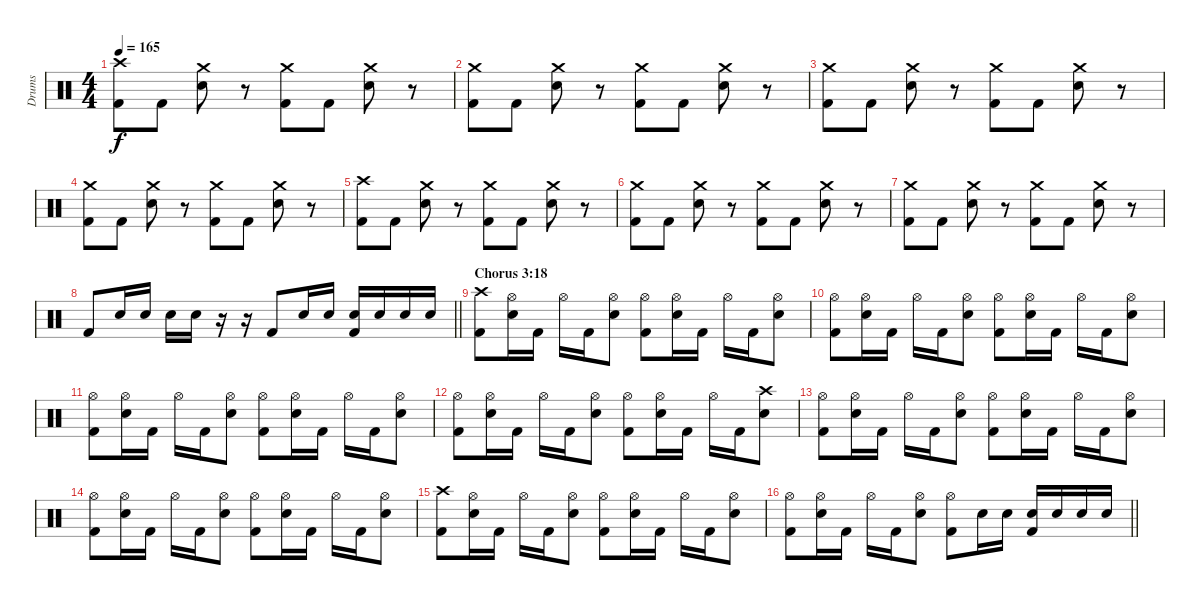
\track ("Drums" "Drums") {instrument percussion}
\staff {score}
\articulation defaults
\ts (4 4)
\tempo 165
\clef neutral
\ks c
("Crash high (hit)" "Kick (hit) 2").8{dy f} "Kick (hit) 2".8 ("Crash medium (hit)" "Electric Snare (hit)").8 r.8 ("Crash medium (hit)" "Kick (hit) 2").8 "Kick (hit) 2".8 ("Crash medium (hit)" "Electric Snare (hit)").8 r.8 |
("Crash medium (hit)" "Kick (hit) 2").8 "Kick (hit) 2".8 ("Crash medium (hit)" "Electric Snare (hit)").8 r.8 ("Crash medium (hit)" "Kick (hit) 2").8 "Kick (hit) 2".8 ("Crash medium (hit)" "Electric Snare (hit)").8 r.8 |
("Crash medium (hit)" "Kick (hit) 2").8 "Kick (hit) 2".8 ("Crash medium (hit)" "Electric Snare (hit)").8 r.8 ("Crash medium (hit)" "Kick (hit) 2").8 "Kick (hit) 2".8 ("Crash medium (hit)" "Electric Snare (hit)").8 r.8 |
("Crash medium (hit)" "Kick (hit) 2").8 "Kick (hit) 2".8 ("Crash medium (hit)" "Electric Snare (hit)").8 r.8 ("Crash medium (hit)" "Kick (hit) 2").8 "Kick (hit) 2".8 ("Crash medium (hit)" "Electric Snare (hit)").8 r.8 |
("Crash high (hit)" "Kick (hit) 2").8 "Kick (hit) 2".8 ("Crash medium (hit)" "Electric Snare (hit)").8 r.8 ("Crash medium (hit)" "Kick (hit) 2").8 "Kick (hit) 2".8 ("Crash medium (hit)" "Electric Snare (hit)").8 r.8 |
("Crash medium (hit)" "Kick (hit) 2").8 "Kick (hit) 2".8 ("Crash medium (hit)" "Electric Snare (hit)").8 r.8 ("Crash medium (hit)" "Kick (hit) 2").8 "Kick (hit) 2".8 ("Crash medium (hit)" "Electric Snare (hit)").8 r.8 |
("Crash medium (hit)" "Kick (hit) 2").8 "Kick (hit) 2".8 ("Crash medium (hit)" "Electric Snare (hit)").8 r.8 ("Crash medium (hit)" "Kick (hit) 2").8 "Kick (hit) 2".8 ("Crash medium (hit)" "Electric Snare (hit)").8 r.8 |
\barLineRight lightlight "Kick (hit) 2".8 "Electric Snare (hit)".16 "Electric Snare (hit)".16 "Electric Snare (hit)".16 "Electric Snare (hit)".16
r.16 r.16 "Kick (hit) 2".8 "Electric Snare (hit)".16 "Electric Snare (hit)".16 ("Kick (hit) 2" "Electric Snare (hit)").16 "Electric Snare (hit)".16 "Electric Snare (hit)".16 "Electric Snare (hit)".16 |
\section ("" "Chorus 3:18")
("Crash high (hit)" "Kick (hit) 2").8 ("Hi-Hat (open)" "Electric Snare (hit)").16 "Kick (hit) 2".16 "Hi-Hat (open)".16 "Kick (hit) 2".16 ("Hi-Hat (open)" "Electric Snare (hit)").8 ("Hi-Hat (open)" "Kick (hit) 2").8 ("Hi-Hat (open)" "Electric Snare (hit)").16 "Kick (hit) 2".16 "Hi-Hat (open)".16 "Kick (hit) 2".16 ("Hi-Hat (open)" "Electric Snare (hit)").8 |
("Hi-Hat (open)" "Kick (hit) 2").8 ("Hi-Hat (open)" "Electric Snare (hit)").16 "Kick (hit) 2".16 "Hi-Hat (open)".16 "Kick (hit) 2".16 ("Hi-Hat (open)" "Electric Snare (hit)").8 ("Hi-Hat (open)" "Kick (hit) 2").8 ("Hi-Hat (open)" "Electric Snare (hit)").16 "Kick (hit) 2".16 "Hi-Hat (open)".16 "Kick (hit) 2".16 ("Hi-Hat (open)" "Electric Snare (hit)").8 |
("Hi-Hat (open)" "Kick (hit) 2").8 ("Hi-Hat (open)" "Electric Snare (hit)").16 "Kick (hit) 2".16 "Hi-Hat (open)".16 "Kick (hit) 2".16 ("Hi-Hat (open)" "Electric Snare (hit)").8 ("Hi-Hat (open)" "Kick (hit) 2").8 ("Hi-Hat (open)" "Electric Snare (hit)").16 "Kick (hit) 2".16 "Hi-Hat (open)".16 "Kick (hit) 2".16 ("Hi-Hat (open)" "Electric Snare (hit)").8 |
("Hi-Hat (open)" "Kick (hit) 2").8 ("Hi-Hat (open)" "Electric Snare (hit)").16 "Kick (hit) 2".16 "Hi-Hat (open)".16 "Kick (hit) 2".16 ("Hi-Hat (open)" "Electric Snare (hit)").8 ("Hi-Hat (open)" "Kick (hit) 2").8 ("Hi-Hat (open)" "Electric Snare (hit)").16 "Kick (hit) 2".16 "Hi-Hat (open)".16 "Kick (hit) 2".16 ("Crash high (hit)" "Electric Snare (hit)").8 |
("Hi-Hat (open)" "Kick (hit) 2").8 ("Hi-Hat (open)" "Electric Snare (hit)").16 "Kick (hit) 2".16 "Hi-Hat (open)".16 "Kick (hit) 2".16 ("Hi-Hat (open)" "Electric Snare (hit)").8 ("Hi-Hat (open)" "Kick (hit) 2").8 ("Hi-Hat (open)" "Electric Snare (hit)").16 "Kick (hit) 2".16 "Hi-Hat (open)".16 "Kick (hit) 2".16 ("Hi-Hat (open)" "Electric Snare (hit)").8 |
("Hi-Hat (open)" "Kick (hit) 2").8 ("Hi-Hat (open)" "Electric Snare (hit)").16 "Kick (hit) 2".16 "Hi-Hat (open)".16 "Kick (hit) 2".16 ("Hi-Hat (open)" "Electric Snare (hit)").8 ("Hi-Hat (open)" "Kick (hit) 2").8 ("Hi-Hat (open)" "Electric Snare (hit)").16 "Kick (hit) 2".16 "Hi-Hat (open)".16 "Kick (hit) 2".16 ("Hi-Hat (open)" "Electric Snare (hit)").8 |
("Crash high (hit)" "Kick (hit) 2").8 ("Hi-Hat (open)" "Electric Snare (hit)").16 "Kick (hit) 2".16 "Hi-Hat (open)".16 "Kick (hit) 2".16 ("Hi-Hat (open)" "Electric Snare (hit)").8 ("Hi-Hat (open)" "Kick (hit) 2").8 ("Hi-Hat (open)" "Electric Snare (hit)").16 "Kick (hit) 2".16 "Hi-Hat (open)".16 "Kick (hit) 2".16 ("Hi-Hat (open)" "Electric Snare (hit)").8 |
\barLineRight lightlight
("Hi-Hat (open)" "Kick (hit) 2").8 ("Hi-Hat (open)" "Electric Snare (hit)").16 "Kick (hit) 2".16 "Hi-Hat (open)".16 "Kick (hit) 2".16 ("Hi-Hat (open)" "Electric Snare (hit)").8 ("Hi-Hat (open)" "Kick (hit) 2").8 "Electric Snare (hit)".16 "Electric Snare (hit)".16 ("Kick (hit) 2" "Electric Snare (hit)").16 "Electric Snare (hit)".16 "Electric Snare (hit)".16 "Electric Snare (hit)".16
